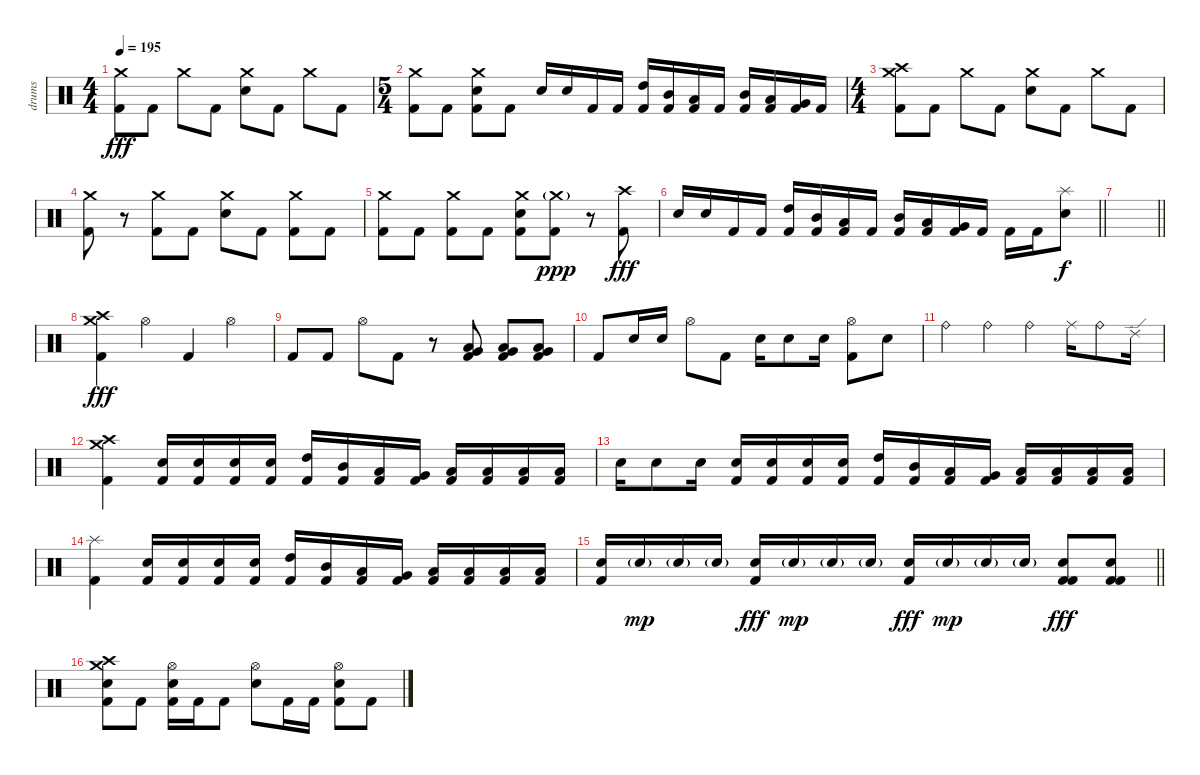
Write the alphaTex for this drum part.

\track ("drums" "drums") {instrument percussion}
\staff {score}
\articulation defaults
\ts (4 4)
\tempo 195
\clef neutral
\ks c
("Crash medium (hit)" "Kick (hit) 2").8{dy fff} "Kick (hit) 2".8 "Crash medium (hit)".8 "Kick (hit) 2".8 ("Crash medium (hit)" "Electric Snare (hit)").8 "Kick (hit) 2".8 "Crash medium (hit)".8 "Kick (hit) 2".8 |
\ts (5 4)
("Crash medium (hit)" "Kick (hit) 2").8 "Kick (hit) 2".8 ("Crash medium (hit)" "Electric Snare (hit)" "Kick (hit) 2").8 "Kick (hit) 2".8 "Electric Snare (hit)".16 "Electric Snare (hit)".16 "Kick (hit) 2".16 "Kick (hit) 2".16 ("High Tom (hit)" "Kick (hit) 2").16 ("Mid Tom (hit)" "Kick (hit) 2").16 ("Low Tom (hit)" "Kick (hit) 2").16 "Kick (hit) 2".16 ("Mid Tom (hit)" "Kick (hit) 2").16 ("Low Tom (hit)" "Kick (hit) 2").16 ("Very Low Tom (hit)" "Kick (hit) 2").16 "Kick (hit) 2".16 |
\ts (4 4)
("Crash high (hit)" "Crash medium (hit)" "Kick (hit) 2").8 "Kick (hit) 2".8 "Crash medium (hit)".8 "Kick (hit) 2".8 ("Crash medium (hit)" "Electric Snare (hit)").8 "Kick (hit) 2".8 "Crash medium (hit)".8 "Kick (hit) 2".8 |
("Crash medium (hit)" "Kick (hit) 2").8 r.8 ("Crash medium (hit)" "Kick (hit) 2").8 "Kick (hit) 2".8 ("Crash medium (hit)" "Electric Snare (hit)").8 "Kick (hit) 2".8 ("Crash medium (hit)" "Kick (hit) 2").8 "Kick (hit) 2".8 |
("Crash medium (hit)" "Kick (hit) 2").8 "Kick (hit) 2".8 ("Crash medium (hit)" "Kick (hit) 2").8 "Kick (hit) 2".8 ("Crash medium (hit)" "Electric Snare (hit)" "Kick (hit) 2").8 ("Crash medium (hit)"{g} "Kick (hit) 2").8{dy ppp} r.8 ("Crash high (hit)" "Kick (hit) 2").8{dy fff} |
\barLineRight lightlight "Electric Snare (hit)".16 "Electric Snare (hit)".16 "Kick (hit) 2".16 "Kick (hit) 2".16
("High Tom (hit)" "Kick (hit) 2").16 ("Mid Tom (hit)" "Kick (hit) 2").16 ("Low Tom (hit)" "Kick (hit) 2").16 "Kick (hit) 2".16 ("Mid Tom (hit)" "Kick (hit) 2").16 ("Low Tom (hit)" "Kick (hit) 2").16 ("Very Low Tom (hit)" "Kick (hit) 2").16 "Kick (hit) 2".16 "Kick (hit) 2".16 "Kick (hit) 2".16 ("Splash (hit)" "Electric Snare (hit)").8{dy f} |
\barLineRight lightlight
|
\section ("" "")
("Crash high (hit)" "Crash medium (hit)" "Kick (hit) 2").4{dy fff} "Hi-Hat (open)".4 "Kick (hit) 2".4 "Hi-Hat (open)".4 |
"Kick (hit) 2".8 "Kick (hit) 2".8 "Hi-Hat (open)".8 "Kick (hit) 2".8 r.8 ("Very Low Tom (hit)" "Low Floor Tom (hit)" "Kick (hit) 2").8 ("Very Low Tom (hit)" "Low Floor Tom (hit)" "Kick (hit) 2").8 ("Very Low Tom (hit)" "Low Floor Tom (hit)" "Kick (hit) 2").8 |
"Kick (hit) 2".8 "Electric Snare (hit)".16 "Electric Snare (hit)".16 "Hi-Hat (open)".8 "Kick (hit) 2".8 "Electric Snare (hit)".16 "Electric Snare (hit)".8 "Electric Snare (hit)".16 ("Hi-Hat (open)" "Kick (hit) 2").8 "Electric Snare (hit)".8 |
"Ride (bell)".4 "Ride (bell)".4 "Ride (bell)".4 "Ride (middle)".16 "Ride (bell)".8 "Ride (edge) 2".16 |
("Crash high (hit)" "Crash medium (hit)" "Kick (hit) 2").4 ("Electric Snare (hit)" "Kick (hit) 2").16 ("Electric Snare (hit)" "Kick (hit) 2").16 ("Electric Snare (hit)" "Kick (hit) 2").16 ("Electric Snare (hit)" "Kick (hit) 2").16 ("High Tom (hit)" "Kick (hit) 2").16 ("Mid Tom (hit)" "Kick (hit) 2").16 ("Low Tom (hit)" "Kick (hit) 2").16 ("Very Low Tom (hit)" "Kick (hit) 2").16 ("Low Floor Tom (hit)" "Kick (hit) 2").16 ("Low Floor Tom (hit)" "Kick (hit) 2").16 ("Low Floor Tom (hit)" "Kick (hit) 2").16 ("Low Floor Tom (hit)" "Kick (hit) 2").16 |
"Electric Snare (hit)".16 "Electric Snare (hit)".8 "Electric Snare (hit)".16 ("Electric Snare (hit)" "Kick (hit) 2").16 ("Electric Snare (hit)" "Kick (hit) 2").16 ("Electric Snare (hit)" "Kick (hit) 2").16 ("Electric Snare (hit)" "Kick (hit) 2").16 ("High Tom (hit)" "Kick (hit) 2").16 ("Mid Tom (hit)" "Kick (hit) 2").16 ("Low Tom (hit)" "Kick (hit) 2").16 ("Very Low Tom (hit)" "Kick (hit) 2").16 ("Low Floor Tom (hit)" "Kick (hit) 2").16 ("Low Floor Tom (hit)" "Kick (hit) 2").16 ("Low Floor Tom (hit)" "Kick (hit) 2").16 ("Low Floor Tom (hit)" "Kick (hit) 2").16 |
("Splash (hit)" "Kick (hit) 2").4 ("Electric Snare (hit)" "Kick (hit) 2").16 ("Electric Snare (hit)" "Kick (hit) 2").16 ("Electric Snare (hit)" "Kick (hit) 2").16 ("Electric Snare (hit)" "Kick (hit) 2").16 ("High Tom (hit)" "Kick (hit) 2").16 ("Mid Tom (hit)" "Kick (hit) 2").16 ("Low Tom (hit)" "Kick (hit) 2").16 ("Very Low Tom (hit)" "Kick (hit) 2").16 ("Low Floor Tom (hit)" "Kick (hit) 2").16 ("Low Floor Tom (hit)" "Kick (hit) 2").16 ("Low Floor Tom (hit)" "Kick (hit) 2").16 ("Low Floor Tom (hit)" "Kick (hit) 2").16 |
\barLineRight lightlight
("Electric Snare (hit)" "Kick (hit) 2").16 "Electric Snare (hit)"{g}.16{dy mp} "Electric Snare (hit)"{g}.16 "Electric Snare (hit)"{g}.16 ("Electric Snare (hit)" "Kick (hit) 2").16{dy fff} "Electric Snare (hit)"{g}.16{dy mp} "Electric Snare (hit)"{g}.16 "Electric Snare (hit)"{g}.16 ("Electric Snare (hit)" "Kick (hit) 2").16{dy fff} "Electric Snare (hit)"{g}.16{dy mp} "Electric Snare (hit)"{g}.16 "Electric Snare (hit)"{g}.16 ("Electric Snare (hit)" "Kick (hit) 2" "Kick (hit) 2").8{dy fff} ("Electric Snare (hit)" "Kick (hit) 2" "Kick (hit) 2").8 |
\section ("" "")
("Crash high (hit)" "Crash medium (hit)" "Electric Snare (hit)" "Kick (hit) 2").8 "Kick (hit) 2".8 ("Hi-Hat (open)" "Electric Snare (hit)" "Kick (hit) 2").16 "Kick (hit) 2".16 "Kick (hit) 2".8 ("Hi-Hat (open)" "Electric Snare (hit)").8 "Kick (hit) 2".16 "Kick (hit) 2".16 ("Hi-Hat (open)" "Electric Snare (hit)" "Kick (hit) 2").8 "Kick (hit) 2".8
